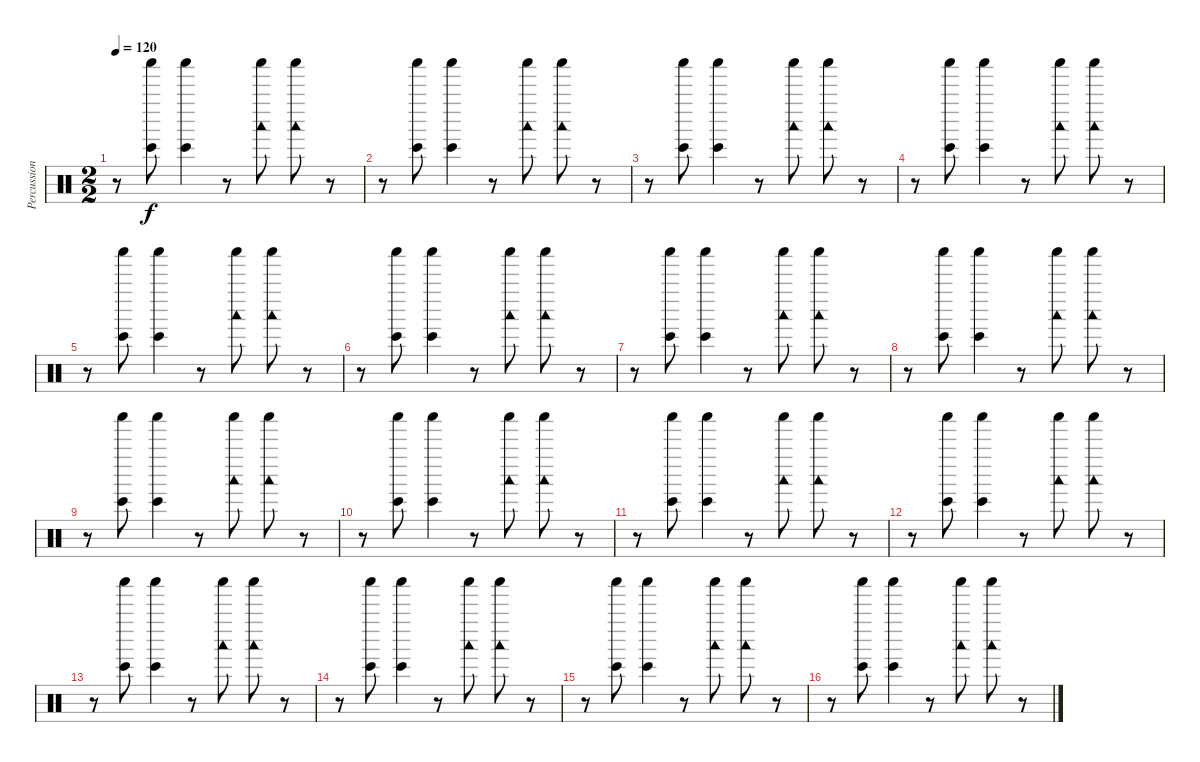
\track ("Percussion" "Percussion") {instrument percussion}
\staff {score}
\articulation defaults
\ts (2 2)
\tempo 120
\clef neutral
\ks c
r.8{dy f} ("Shaker (hit)" "Bongo High (hit)").8 ("Shaker (hit)" "Bongo High (hit)").4 r.8 ("Shaker (hit)" "Woodblock low (hit)").8 ("Shaker (hit)" "Woodblock low (hit)").8 r.8 |
r.8 ("Shaker (hit)" "Bongo High (hit)").8 ("Shaker (hit)" "Bongo High (hit)").4 r.8 ("Shaker (hit)" "Woodblock low (hit)").8 ("Shaker (hit)" "Woodblock low (hit)").8 r.8 |
r.8 ("Shaker (hit)" "Bongo High (hit)").8 ("Shaker (hit)" "Bongo High (hit)").4 r.8 ("Shaker (hit)" "Woodblock low (hit)").8 ("Shaker (hit)" "Woodblock low (hit)").8 r.8 |
r.8 ("Shaker (hit)" "Bongo High (hit)").8 ("Shaker (hit)" "Bongo High (hit)").4 r.8 ("Shaker (hit)" "Woodblock low (hit)").8 ("Shaker (hit)" "Woodblock low (hit)").8 r.8 |
r.8 ("Shaker (hit)" "Bongo High (hit)").8 ("Shaker (hit)" "Bongo High (hit)").4 r.8 ("Shaker (hit)" "Woodblock low (hit)").8 ("Shaker (hit)" "Woodblock low (hit)").8 r.8 |
r.8 ("Shaker (hit)" "Bongo High (hit)").8 ("Shaker (hit)" "Bongo High (hit)").4 r.8 ("Shaker (hit)" "Woodblock low (hit)").8 ("Shaker (hit)" "Woodblock low (hit)").8 r.8 |
r.8 ("Shaker (hit)" "Bongo High (hit)").8 ("Shaker (hit)" "Bongo High (hit)").4 r.8 ("Shaker (hit)" "Woodblock low (hit)").8 ("Shaker (hit)" "Woodblock low (hit)").8 r.8 |
r.8 ("Shaker (hit)" "Bongo High (hit)").8 ("Shaker (hit)" "Bongo High (hit)").4 r.8 ("Shaker (hit)" "Woodblock low (hit)").8 ("Shaker (hit)" "Woodblock low (hit)").8 r.8 |
r.8 ("Shaker (hit)" "Bongo High (hit)").8 ("Shaker (hit)" "Bongo High (hit)").4 r.8 ("Shaker (hit)" "Woodblock low (hit)").8 ("Shaker (hit)" "Woodblock low (hit)").8 r.8 |
r.8 ("Shaker (hit)" "Bongo High (hit)").8 ("Shaker (hit)" "Bongo High (hit)").4 r.8 ("Shaker (hit)" "Woodblock low (hit)").8 ("Shaker (hit)" "Woodblock low (hit)").8 r.8 |
r.8 ("Shaker (hit)" "Bongo High (hit)").8 ("Shaker (hit)" "Bongo High (hit)").4 r.8 ("Shaker (hit)" "Woodblock low (hit)").8 ("Shaker (hit)" "Woodblock low (hit)").8 r.8 |
r.8 ("Shaker (hit)" "Bongo High (hit)").8 ("Shaker (hit)" "Bongo High (hit)").4 r.8 ("Shaker (hit)" "Woodblock low (hit)").8 ("Shaker (hit)" "Woodblock low (hit)").8 r.8 |
r.8 ("Shaker (hit)" "Bongo High (hit)").8 ("Shaker (hit)" "Bongo High (hit)").4 r.8 ("Shaker (hit)" "Woodblock low (hit)").8 ("Shaker (hit)" "Woodblock low (hit)").8 r.8 |
r.8 ("Shaker (hit)" "Bongo High (hit)").8 ("Shaker (hit)" "Bongo High (hit)").4 r.8 ("Shaker (hit)" "Woodblock low (hit)").8 ("Shaker (hit)" "Woodblock low (hit)").8 r.8 |
r.8 ("Shaker (hit)" "Bongo High (hit)").8 ("Shaker (hit)" "Bongo High (hit)").4 r.8 ("Shaker (hit)" "Woodblock low (hit)").8 ("Shaker (hit)" "Woodblock low (hit)").8 r.8 |
r.8 ("Shaker (hit)" "Bongo High (hit)").8 ("Shaker (hit)" "Bongo High (hit)").4 r.8 ("Shaker (hit)" "Woodblock low (hit)").8 ("Shaker (hit)" "Woodblock low (hit)").8 r.8
